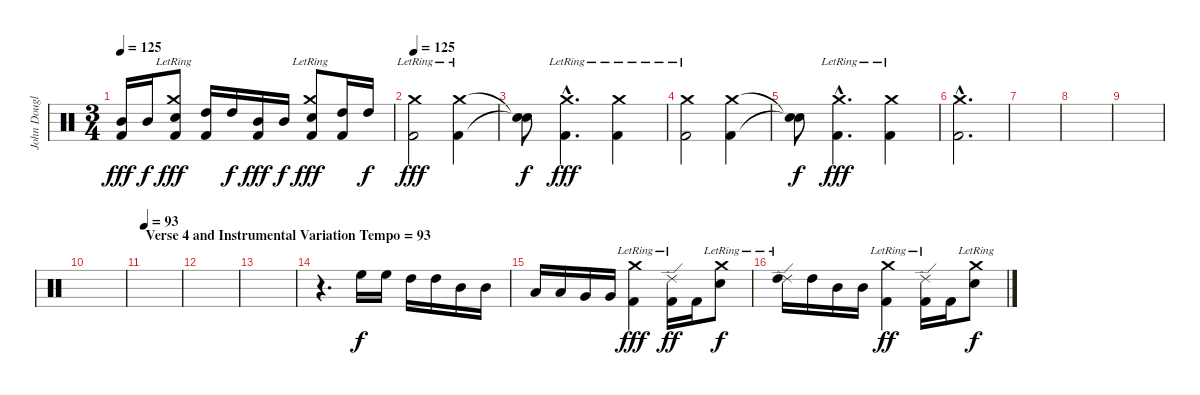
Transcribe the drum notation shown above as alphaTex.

\track ("John Douglas (Drums)" "John Dougl") {instrument percussion}
\staff {score}
\articulation defaults
\ts (3 4)
\tempo 125
\clef neutral
\ks c
("Mid Tom (hit)" "Kick (hit) 2").16{dy fff} "Mid Tom (hit)".16{dy f} ("Crash medium (hit)"{lr} "Snare (hit) 2" "Kick (hit) 2").8{dy fff} ("High Tom (hit)" "Kick (hit) 2").16 "High Tom (hit)".16{dy f} ("Mid Tom (hit)" "Kick (hit) 2").16{dy fff} "Mid Tom (hit)".16{dy f} ("Crash medium (hit)"{lr} "Snare (hit) 2" "Kick (hit) 2").8{dy fff} ("High Tom (hit)" "Kick (hit) 2").16 "High Tom (hit)".16{dy f} |
\tempo 125
("Crash medium (hit)"{lr} "Kick (hit) 2").2{dy fff} ("Crash medium (hit)"{lr} "Kick (hit) 2").4 |
("Snare (hit)"{t} "Snare (hit)"{t}).8{dy f} ("Crash medium (hit)"{hac lr} "Kick (hit) 2"{hac}).4{d dy fff} ("Crash medium (hit)"{lr} "Kick (hit) 2").4 |
("Crash medium (hit)"{lr} "Kick (hit) 2").2 ("Crash medium (hit)" "Kick (hit) 2").4 |
("Snare (hit)"{t} "Snare (hit)"{t}).8{dy f} ("Crash medium (hit)"{hac lr} "Kick (hit) 2"{hac}).4{d dy fff} ("Crash medium (hit)"{lr} "Kick (hit) 2").4 |
("Crash medium (hit)"{hac} "Kick (hit) 2"{hac}).2{d} |
|
|
|
|
\section ("" "Verse 4 and Instrumental Variation Tempo = 93")
\tempo 93
|
|
|
r.4{d} "High Floor Tom (hit)".16{dy f} "High Floor Tom (hit)".16 "High Tom (hit)".16 "High Tom (hit)".16 "Mid Tom (hit)".16 "Mid Tom (hit)".16 |
"Low Tom (hit)".16 "Low Tom (hit)".16 "Very Low Tom (hit)".16 "Very Low Tom (hit)".16 ("Crash medium (hit)"{lr} "Kick (hit) 2").4{dy fff} ("Ride (edge) 2"{lr} "Kick (hit) 2").16{dy ff} "Kick (hit) 2".16 ("Crash medium (hit)"{lr} "Snare (hit) 2").8{dy f} |
("Ride (edge) 2"{lr} "High Tom (hit)").16 "High Tom (hit)".16 "Mid Tom (hit)".16 "Mid Tom (hit)".16 ("Crash medium (hit)"{lr} "Kick (hit) 2").4{dy ff} ("Ride (edge) 2"{lr} "Kick (hit) 2").16 "Kick (hit) 2".16 ("Crash medium (hit)"{lr} "Snare (hit) 2").8{dy f}
